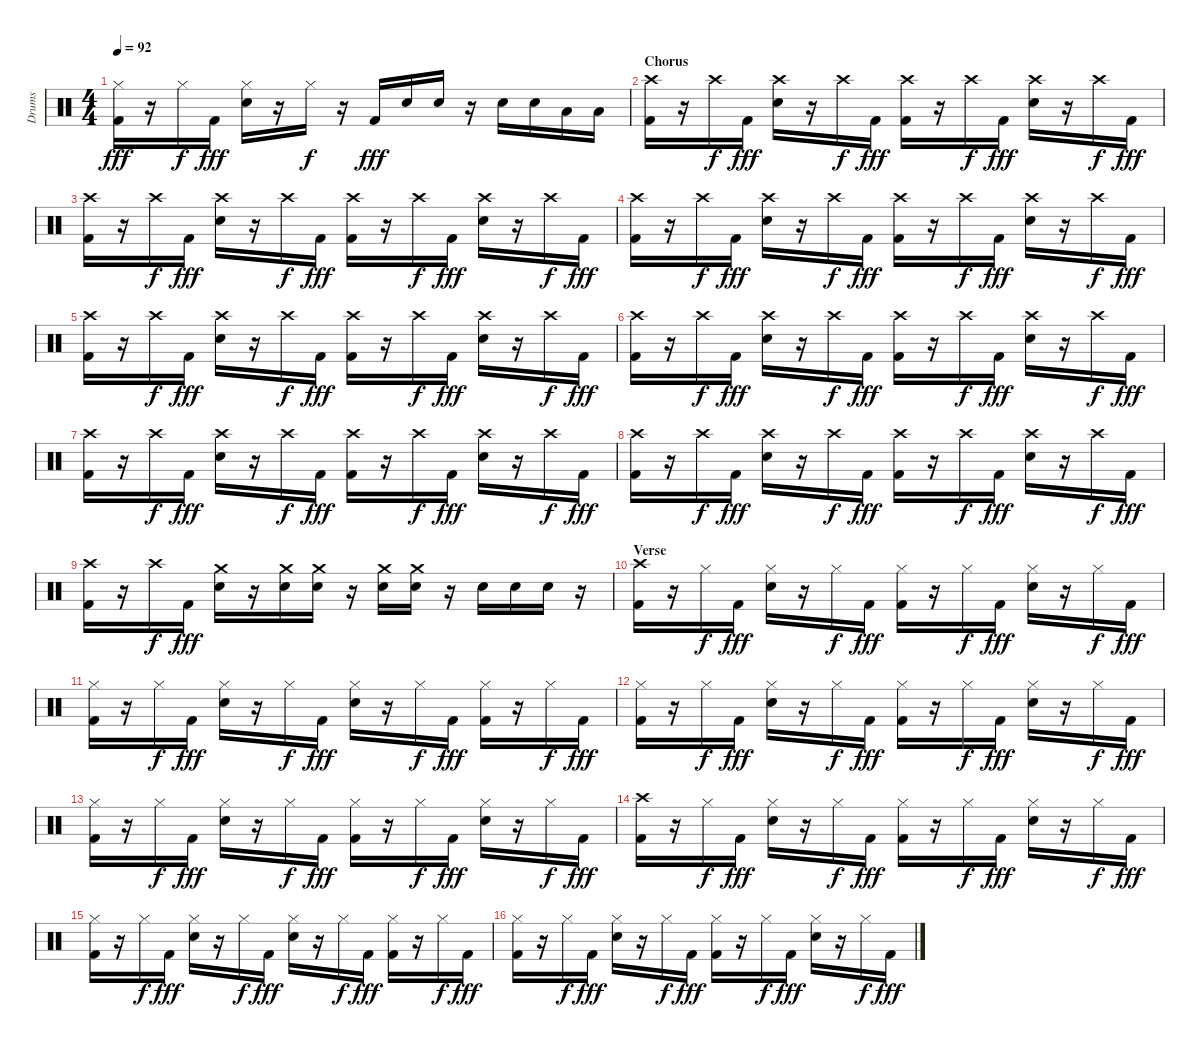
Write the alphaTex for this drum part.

\track ("Drums" "Drums") {instrument percussion}
\staff {score}
\articulation defaults
\ts (4 4)
\tempo 92
\clef neutral
\ks c
("Hi-Hat (closed)" "Kick (hit) 2").16{dy fff} r.16 "Hi-Hat (closed)".16{dy f} "Kick (hit) 2".16{dy fff} ("Hi-Hat (closed)" "Electric Snare (hit)").16 r.16 "Hi-Hat (closed)".16{dy f} r.16 "Kick (hit) 2".16{dy fff} "Electric Snare (hit)".16 "Electric Snare (hit)".16 r.16 "Electric Snare (hit)".16 "Electric Snare (hit)".16 "Low Floor Tom (hit)".16 "Low Floor Tom (hit)".16 |
\section ("" "Chorus")
("Crash high (hit)" "Kick (hit) 2").16 r.16 "Crash high (hit)".16{dy f} "Kick (hit) 2".16{dy fff} ("Crash high (hit)" "Electric Snare (hit)").16 r.16 "Crash high (hit)".16{dy f} "Kick (hit) 2".16{dy fff} ("Crash high (hit)" "Kick (hit) 2").16 r.16 "Crash high (hit)".16{dy f} "Kick (hit) 2".16{dy fff} ("Crash high (hit)" "Electric Snare (hit)").16 r.16 "Crash high (hit)".16{dy f} "Kick (hit) 2".16{dy fff} |
("Crash high (hit)" "Kick (hit) 2").16 r.16 "Crash high (hit)".16{dy f} "Kick (hit) 2".16{dy fff} ("Crash high (hit)" "Electric Snare (hit)").16 r.16 "Crash high (hit)".16{dy f} "Kick (hit) 2".16{dy fff} ("Crash high (hit)" "Kick (hit) 2").16 r.16 "Crash high (hit)".16{dy f} "Kick (hit) 2".16{dy fff} ("Crash high (hit)" "Electric Snare (hit)").16 r.16 "Crash high (hit)".16{dy f} "Kick (hit) 2".16{dy fff} |
("Crash high (hit)" "Kick (hit) 2").16 r.16 "Crash high (hit)".16{dy f} "Kick (hit) 2".16{dy fff} ("Crash high (hit)" "Electric Snare (hit)").16 r.16 "Crash high (hit)".16{dy f} "Kick (hit) 2".16{dy fff} ("Crash high (hit)" "Kick (hit) 2").16 r.16 "Crash high (hit)".16{dy f} "Kick (hit) 2".16{dy fff} ("Crash high (hit)" "Electric Snare (hit)").16 r.16 "Crash high (hit)".16{dy f} "Kick (hit) 2".16{dy fff} |
("Crash high (hit)" "Kick (hit) 2").16 r.16 "Crash high (hit)".16{dy f} "Kick (hit) 2".16{dy fff} ("Crash high (hit)" "Electric Snare (hit)").16 r.16 "Crash high (hit)".16{dy f} "Kick (hit) 2".16{dy fff} ("Crash high (hit)" "Kick (hit) 2").16 r.16 "Crash high (hit)".16{dy f} "Kick (hit) 2".16{dy fff} ("Crash high (hit)" "Electric Snare (hit)").16 r.16 "Crash high (hit)".16{dy f} "Kick (hit) 2".16{dy fff} |
("Crash high (hit)" "Kick (hit) 2").16 r.16 "Crash high (hit)".16{dy f} "Kick (hit) 2".16{dy fff} ("Crash high (hit)" "Electric Snare (hit)").16 r.16 "Crash high (hit)".16{dy f} "Kick (hit) 2".16{dy fff} ("Crash high (hit)" "Kick (hit) 2").16 r.16 "Crash high (hit)".16{dy f} "Kick (hit) 2".16{dy fff} ("Crash high (hit)" "Electric Snare (hit)").16 r.16 "Crash high (hit)".16{dy f} "Kick (hit) 2".16{dy fff} |
("Crash high (hit)" "Kick (hit) 2").16 r.16 "Crash high (hit)".16{dy f} "Kick (hit) 2".16{dy fff} ("Crash high (hit)" "Electric Snare (hit)").16 r.16 "Crash high (hit)".16{dy f} "Kick (hit) 2".16{dy fff} ("Crash high (hit)" "Kick (hit) 2").16 r.16 "Crash high (hit)".16{dy f} "Kick (hit) 2".16{dy fff} ("Crash high (hit)" "Electric Snare (hit)").16 r.16 "Crash high (hit)".16{dy f} "Kick (hit) 2".16{dy fff} |
("Crash high (hit)" "Kick (hit) 2").16 r.16 "Crash high (hit)".16{dy f} "Kick (hit) 2".16{dy fff} ("Crash high (hit)" "Electric Snare (hit)").16 r.16 "Crash high (hit)".16{dy f} "Kick (hit) 2".16{dy fff} ("Crash high (hit)" "Kick (hit) 2").16 r.16 "Crash high (hit)".16{dy f} "Kick (hit) 2".16{dy fff} ("Crash high (hit)" "Electric Snare (hit)").16 r.16 "Crash high (hit)".16{dy f} "Kick (hit) 2".16{dy fff} |
("Crash high (hit)" "Kick (hit) 2").16 r.16 "Crash high (hit)".16{dy f} "Kick (hit) 2".16{dy fff} ("Crash medium (hit)" "Electric Snare (hit)").16 r.16 ("Crash medium (hit)" "Electric Snare (hit)").16 ("Crash medium (hit)" "Electric Snare (hit)").16 r.16 ("Crash medium (hit)" "Electric Snare (hit)").16 ("Crash medium (hit)" "Electric Snare (hit)").16 r.16 "Electric Snare (hit)".16 "Electric Snare (hit)".16 "Electric Snare (hit)".16 r.16 |
\section ("" "Verse")
("Crash high (hit)" "Kick (hit) 2").16 r.16 "Hi-Hat (closed)".16{dy f} "Kick (hit) 2".16{dy fff} ("Hi-Hat (closed)" "Electric Snare (hit)").16 r.16 "Hi-Hat (closed)".16{dy f} "Kick (hit) 2".16{dy fff} ("Hi-Hat (closed)" "Kick (hit) 2").16 r.16 "Hi-Hat (closed)".16{dy f} "Kick (hit) 2".16{dy fff} ("Hi-Hat (closed)" "Electric Snare (hit)").16 r.16 "Hi-Hat (closed)".16{dy f} "Kick (hit) 2".16{dy fff} |
("Hi-Hat (closed)" "Kick (hit) 2").16 r.16 "Hi-Hat (closed)".16{dy f} "Kick (hit) 2".16{dy fff} ("Hi-Hat (closed)" "Electric Snare (hit)").16 r.16 "Hi-Hat (closed)".16{dy f} "Kick (hit) 2".16{dy fff} ("Hi-Hat (closed)" "Electric Snare (hit)").16 r.16 "Hi-Hat (closed)".16{dy f} "Kick (hit) 2".16{dy fff} ("Hi-Hat (closed)" "Kick (hit) 2").16 r.16 "Hi-Hat (closed)".16{dy f} "Kick (hit) 2".16{dy fff} |
("Hi-Hat (closed)" "Kick (hit) 2").16 r.16 "Hi-Hat (closed)".16{dy f} "Kick (hit) 2".16{dy fff} ("Hi-Hat (closed)" "Electric Snare (hit)").16 r.16 "Hi-Hat (closed)".16{dy f} "Kick (hit) 2".16{dy fff} ("Hi-Hat (closed)" "Kick (hit) 2").16 r.16 "Hi-Hat (closed)".16{dy f} "Kick (hit) 2".16{dy fff} ("Hi-Hat (closed)" "Electric Snare (hit)").16 r.16 "Hi-Hat (closed)".16{dy f} "Kick (hit) 2".16{dy fff} |
("Hi-Hat (closed)" "Kick (hit) 2").16 r.16 "Hi-Hat (closed)".16{dy f} "Kick (hit) 2".16{dy fff} ("Hi-Hat (closed)" "Electric Snare (hit)").16 r.16 "Hi-Hat (closed)".16{dy f} "Kick (hit) 2".16{dy fff} ("Hi-Hat (closed)" "Kick (hit) 2").16 r.16 "Hi-Hat (closed)".16{dy f} "Kick (hit) 2".16{dy fff} ("Hi-Hat (closed)" "Electric Snare (hit)").16 r.16 "Hi-Hat (closed)".16{dy f} "Kick (hit) 2".16{dy fff} |
("Crash high (hit)" "Kick (hit) 2").16 r.16 "Hi-Hat (closed)".16{dy f} "Kick (hit) 2".16{dy fff} ("Hi-Hat (closed)" "Electric Snare (hit)").16 r.16 "Hi-Hat (closed)".16{dy f} "Kick (hit) 2".16{dy fff} ("Hi-Hat (closed)" "Kick (hit) 2").16 r.16 "Hi-Hat (closed)".16{dy f} "Kick (hit) 2".16{dy fff} ("Hi-Hat (closed)" "Electric Snare (hit)").16 r.16 "Hi-Hat (closed)".16{dy f} "Kick (hit) 2".16{dy fff} |
("Hi-Hat (closed)" "Kick (hit) 2").16 r.16 "Hi-Hat (closed)".16{dy f} "Kick (hit) 2".16{dy fff} ("Hi-Hat (closed)" "Electric Snare (hit)").16 r.16 "Hi-Hat (closed)".16{dy f} "Kick (hit) 2".16{dy fff} ("Hi-Hat (closed)" "Electric Snare (hit)").16 r.16 "Hi-Hat (closed)".16{dy f} "Kick (hit) 2".16{dy fff} ("Hi-Hat (closed)" "Kick (hit) 2").16 r.16 "Hi-Hat (closed)".16{dy f} "Kick (hit) 2".16{dy fff} |
("Hi-Hat (closed)" "Kick (hit) 2").16 r.16 "Hi-Hat (closed)".16{dy f} "Kick (hit) 2".16{dy fff} ("Hi-Hat (closed)" "Electric Snare (hit)").16 r.16 "Hi-Hat (closed)".16{dy f} "Kick (hit) 2".16{dy fff} ("Hi-Hat (closed)" "Kick (hit) 2").16 r.16 "Hi-Hat (closed)".16{dy f} "Kick (hit) 2".16{dy fff} ("Hi-Hat (closed)" "Electric Snare (hit)").16 r.16 "Hi-Hat (closed)".16{dy f} "Kick (hit) 2".16{dy fff}
